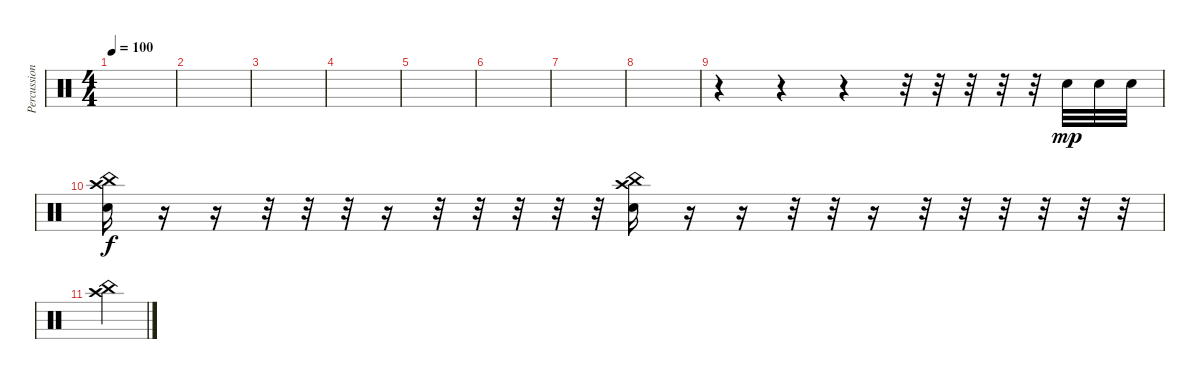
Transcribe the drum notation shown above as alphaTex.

\track ("Percussion" "Percussion") {instrument percussion}
\staff {score}
\articulation defaults
\ts (4 4)
\tempo 100
\clef neutral
\ks c
|
|
|
|
|
|
|
|
r.4 r.4 r.4 r.32 r.32 r.32 r.32 r.32 "Electric Snare (hit)".32{dy mp} "Snare (hit) 2".32 "Electric Snare (hit)".32 |
("Crash high (hit)" "China (hit)" "Electric Snare (hit)").16{dy f} r.16 r.16 r.32 r.32 r.32 r.16 r.32 r.32 r.32 r.32 r.32 ("Crash high (hit)" "China (hit)" "Electric Snare (hit)").16 r.16 r.16 r.32 r.32 r.16 r.32 r.32 r.32 r.32 r.32 r.32 |
("China (hit)" "Crash high (hit)").4
